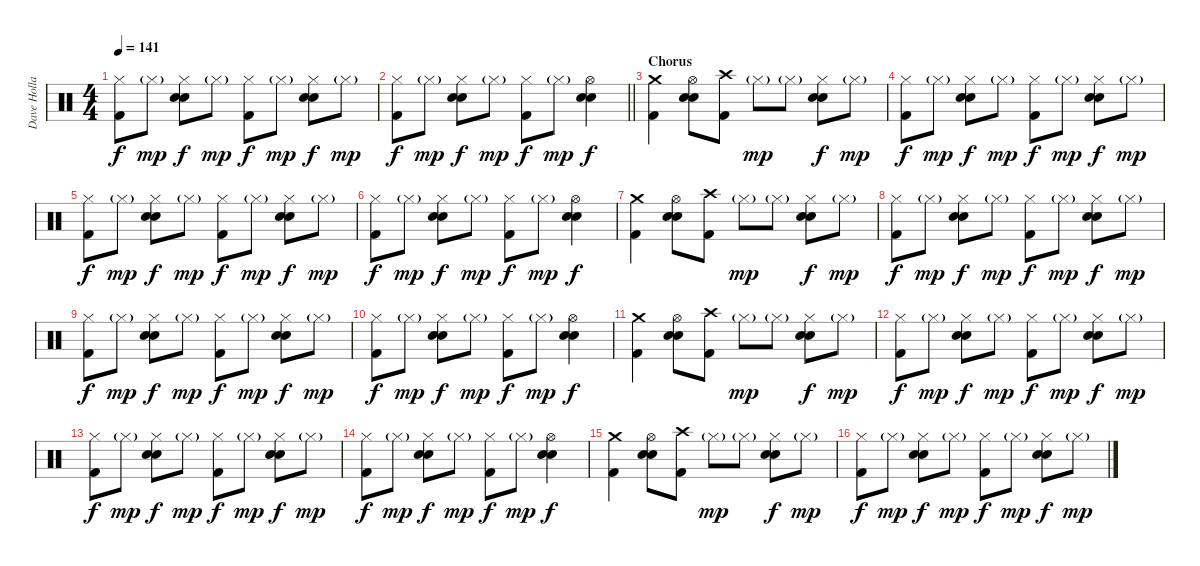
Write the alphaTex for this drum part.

\track ("Dave Holland" "Dave Holla") {instrument percussion}
\staff {score}
\articulation defaults
\ts (4 4)
\tempo 141
\clef neutral
\ks c
("Hi-Hat (closed)" "Kick (hit) 2").8{dy f} "Hi-Hat (closed)"{g}.8{dy mp} ("Hi-Hat (closed)" "Electric Snare (hit)" "Snare (hit) 2").8{dy f} "Hi-Hat (closed)"{g}.8{dy mp} ("Hi-Hat (closed)" "Kick (hit) 2").8{dy f} "Hi-Hat (closed)"{g}.8{dy mp} ("Hi-Hat (closed)" "Electric Snare (hit)" "Snare (hit) 2").8{dy f} "Hi-Hat (closed)"{g}.8{dy mp} |
\barLineRight lightlight
("Hi-Hat (closed)" "Kick (hit) 2").8{dy f} "Hi-Hat (closed)"{g}.8{dy mp} ("Hi-Hat (closed)" "Electric Snare (hit)" "Snare (hit) 2").8{dy f} "Hi-Hat (closed)"{g}.8{dy mp} ("Hi-Hat (closed)" "Kick (hit) 2").8{dy f} "Hi-Hat (closed)"{g}.8{dy mp} ("Hi-Hat (open)" "Electric Snare (hit)" "Snare (hit) 2").4{dy f} |
\section ("" "Chorus")
("Crash medium (hit)" "Kick (hit) 2").4 ("Hi-Hat (open)" "Electric Snare (hit)" "Snare (hit) 2").8 ("Crash high (hit)" "Kick (hit) 2").8 "Hi-Hat (closed)"{g}.8{dy mp} "Hi-Hat (closed)"{g}.8 ("Hi-Hat (closed)" "Electric Snare (hit)" "Snare (hit) 2").8{dy f} "Hi-Hat (closed)"{g}.8{dy mp} |
("Hi-Hat (closed)" "Kick (hit) 2").8{dy f} "Hi-Hat (closed)"{g}.8{dy mp} ("Hi-Hat (closed)" "Electric Snare (hit)" "Snare (hit) 2").8{dy f} "Hi-Hat (closed)"{g}.8{dy mp} ("Hi-Hat (closed)" "Kick (hit) 2").8{dy f} "Hi-Hat (closed)"{g}.8{dy mp} ("Hi-Hat (closed)" "Electric Snare (hit)" "Snare (hit) 2").8{dy f} "Hi-Hat (closed)"{g}.8{dy mp} |
("Hi-Hat (closed)" "Kick (hit) 2").8{dy f} "Hi-Hat (closed)"{g}.8{dy mp} ("Hi-Hat (closed)" "Electric Snare (hit)" "Snare (hit) 2").8{dy f} "Hi-Hat (closed)"{g}.8{dy mp} ("Hi-Hat (closed)" "Kick (hit) 2").8{dy f} "Hi-Hat (closed)"{g}.8{dy mp} ("Hi-Hat (closed)" "Electric Snare (hit)" "Snare (hit) 2").8{dy f} "Hi-Hat (closed)"{g}.8{dy mp} |
("Hi-Hat (closed)" "Kick (hit) 2").8{dy f} "Hi-Hat (closed)"{g}.8{dy mp} ("Hi-Hat (closed)" "Electric Snare (hit)" "Snare (hit) 2").8{dy f} "Hi-Hat (closed)"{g}.8{dy mp} ("Hi-Hat (closed)" "Kick (hit) 2").8{dy f} "Hi-Hat (closed)"{g}.8{dy mp} ("Hi-Hat (open)" "Electric Snare (hit)" "Snare (hit) 2").4{dy f} |
("Crash medium (hit)" "Kick (hit) 2").4 ("Hi-Hat (open)" "Electric Snare (hit)" "Snare (hit) 2").8 ("Crash high (hit)" "Kick (hit) 2").8 "Hi-Hat (closed)"{g}.8{dy mp} "Hi-Hat (closed)"{g}.8 ("Hi-Hat (closed)" "Electric Snare (hit)" "Snare (hit) 2").8{dy f} "Hi-Hat (closed)"{g}.8{dy mp} |
("Hi-Hat (closed)" "Kick (hit) 2").8{dy f} "Hi-Hat (closed)"{g}.8{dy mp} ("Hi-Hat (closed)" "Electric Snare (hit)" "Snare (hit) 2").8{dy f} "Hi-Hat (closed)"{g}.8{dy mp} ("Hi-Hat (closed)" "Kick (hit) 2").8{dy f} "Hi-Hat (closed)"{g}.8{dy mp} ("Hi-Hat (closed)" "Electric Snare (hit)" "Snare (hit) 2").8{dy f} "Hi-Hat (closed)"{g}.8{dy mp} |
("Hi-Hat (closed)" "Kick (hit) 2").8{dy f} "Hi-Hat (closed)"{g}.8{dy mp} ("Hi-Hat (closed)" "Electric Snare (hit)" "Snare (hit) 2").8{dy f} "Hi-Hat (closed)"{g}.8{dy mp} ("Hi-Hat (closed)" "Kick (hit) 2").8{dy f} "Hi-Hat (closed)"{g}.8{dy mp} ("Hi-Hat (closed)" "Electric Snare (hit)" "Snare (hit) 2").8{dy f} "Hi-Hat (closed)"{g}.8{dy mp} |
("Hi-Hat (closed)" "Kick (hit) 2").8{dy f} "Hi-Hat (closed)"{g}.8{dy mp} ("Hi-Hat (closed)" "Electric Snare (hit)" "Snare (hit) 2").8{dy f} "Hi-Hat (closed)"{g}.8{dy mp} ("Hi-Hat (closed)" "Kick (hit) 2").8{dy f} "Hi-Hat (closed)"{g}.8{dy mp} ("Hi-Hat (open)" "Electric Snare (hit)" "Snare (hit) 2").4{dy f} |
("Crash medium (hit)" "Kick (hit) 2").4 ("Hi-Hat (open)" "Electric Snare (hit)" "Snare (hit) 2").8 ("Crash high (hit)" "Kick (hit) 2").8 "Hi-Hat (closed)"{g}.8{dy mp} "Hi-Hat (closed)"{g}.8 ("Hi-Hat (closed)" "Electric Snare (hit)" "Snare (hit) 2").8{dy f} "Hi-Hat (closed)"{g}.8{dy mp} |
("Hi-Hat (closed)" "Kick (hit) 2").8{dy f} "Hi-Hat (closed)"{g}.8{dy mp} ("Hi-Hat (closed)" "Electric Snare (hit)" "Snare (hit) 2").8{dy f} "Hi-Hat (closed)"{g}.8{dy mp} ("Hi-Hat (closed)" "Kick (hit) 2").8{dy f} "Hi-Hat (closed)"{g}.8{dy mp} ("Hi-Hat (closed)" "Electric Snare (hit)" "Snare (hit) 2").8{dy f} "Hi-Hat (closed)"{g}.8{dy mp} |
("Hi-Hat (closed)" "Kick (hit) 2").8{dy f} "Hi-Hat (closed)"{g}.8{dy mp} ("Hi-Hat (closed)" "Electric Snare (hit)" "Snare (hit) 2").8{dy f} "Hi-Hat (closed)"{g}.8{dy mp} ("Hi-Hat (closed)" "Kick (hit) 2").8{dy f} "Hi-Hat (closed)"{g}.8{dy mp} ("Hi-Hat (closed)" "Electric Snare (hit)" "Snare (hit) 2").8{dy f} "Hi-Hat (closed)"{g}.8{dy mp} |
("Hi-Hat (closed)" "Kick (hit) 2").8{dy f} "Hi-Hat (closed)"{g}.8{dy mp} ("Hi-Hat (closed)" "Electric Snare (hit)" "Snare (hit) 2").8{dy f} "Hi-Hat (closed)"{g}.8{dy mp} ("Hi-Hat (closed)" "Kick (hit) 2").8{dy f} "Hi-Hat (closed)"{g}.8{dy mp} ("Hi-Hat (open)" "Electric Snare (hit)" "Snare (hit) 2").4{dy f} |
("Crash medium (hit)" "Kick (hit) 2").4 ("Hi-Hat (open)" "Electric Snare (hit)" "Snare (hit) 2").8 ("Crash high (hit)" "Kick (hit) 2").8 "Hi-Hat (closed)"{g}.8{dy mp} "Hi-Hat (closed)"{g}.8 ("Hi-Hat (closed)" "Electric Snare (hit)" "Snare (hit) 2").8{dy f} "Hi-Hat (closed)"{g}.8{dy mp} |
("Hi-Hat (closed)" "Kick (hit) 2").8{dy f} "Hi-Hat (closed)"{g}.8{dy mp} ("Hi-Hat (closed)" "Electric Snare (hit)" "Snare (hit) 2").8{dy f} "Hi-Hat (closed)"{g}.8{dy mp} ("Hi-Hat (closed)" "Kick (hit) 2").8{dy f} "Hi-Hat (closed)"{g}.8{dy mp} ("Hi-Hat (closed)" "Electric Snare (hit)" "Snare (hit) 2").8{dy f} "Hi-Hat (closed)"{g}.8{dy mp}
